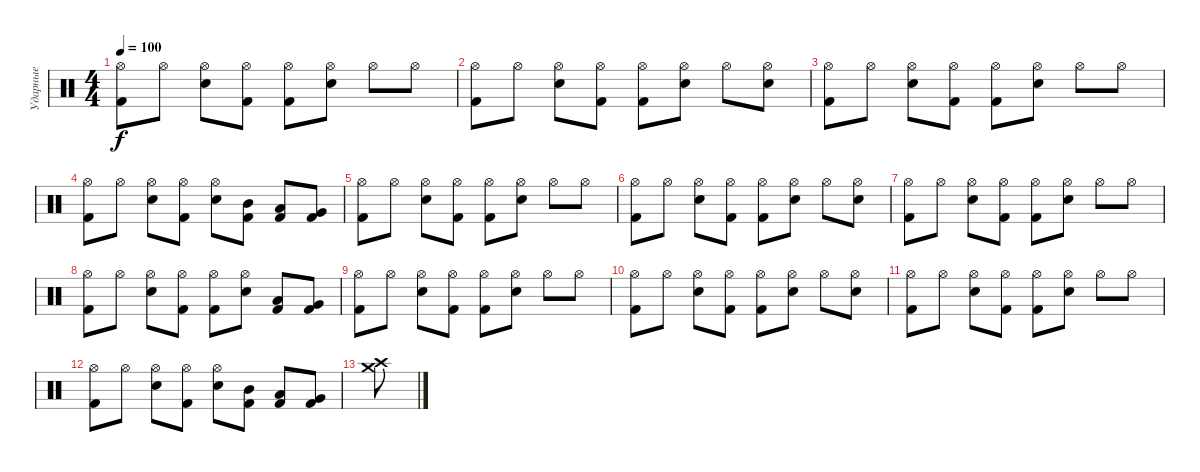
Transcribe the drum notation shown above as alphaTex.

\track ("Ударные" "Ударные") {instrument percussion}
\staff {score}
\articulation defaults
\ts (4 4)
\tempo 100
\clef neutral
\ks c
("Kick (hit) 2" "Hi-Hat (open)").8{dy f} "Hi-Hat (open)".8 ("Electric Snare (hit)" "Hi-Hat (open)").8 ("Kick (hit) 2" "Hi-Hat (open)").8 ("Kick (hit) 2" "Hi-Hat (open)").8 ("Electric Snare (hit)" "Hi-Hat (open)").8 "Hi-Hat (open)".8 "Hi-Hat (open)".8 |
("Kick (hit) 2" "Hi-Hat (open)").8 "Hi-Hat (open)".8 ("Electric Snare (hit)" "Hi-Hat (open)").8 ("Kick (hit) 2" "Hi-Hat (open)").8 ("Kick (hit) 2" "Hi-Hat (open)").8 ("Electric Snare (hit)" "Hi-Hat (open)").8 "Hi-Hat (open)".8 ("Electric Snare (hit)" "Hi-Hat (open)").8 |
("Kick (hit) 2" "Hi-Hat (open)").8 "Hi-Hat (open)".8 ("Electric Snare (hit)" "Hi-Hat (open)").8 ("Kick (hit) 2" "Hi-Hat (open)").8 ("Kick (hit) 2" "Hi-Hat (open)").8 ("Electric Snare (hit)" "Hi-Hat (open)").8 "Hi-Hat (open)".8 "Hi-Hat (open)".8 |
("Kick (hit) 2" "Hi-Hat (open)").8 "Hi-Hat (open)".8 ("Electric Snare (hit)" "Hi-Hat (open)").8 ("Kick (hit) 2" "Hi-Hat (open)").8 ("Electric Snare (hit)" "Hi-Hat (open)").8 ("Mid Tom (hit)" "Kick (hit) 2").8 ("Low Tom (hit)" "Kick (hit) 2").8 ("Very Low Tom (hit)" "Kick (hit) 2").8 |
("Kick (hit) 2" "Hi-Hat (open)").8 "Hi-Hat (open)".8 ("Electric Snare (hit)" "Hi-Hat (open)").8 ("Kick (hit) 2" "Hi-Hat (open)").8 ("Kick (hit) 2" "Hi-Hat (open)").8 ("Electric Snare (hit)" "Hi-Hat (open)").8 "Hi-Hat (open)".8 "Hi-Hat (open)".8 |
("Kick (hit) 2" "Hi-Hat (open)").8 "Hi-Hat (open)".8 ("Electric Snare (hit)" "Hi-Hat (open)").8 ("Kick (hit) 2" "Hi-Hat (open)").8 ("Kick (hit) 2" "Hi-Hat (open)").8 ("Electric Snare (hit)" "Hi-Hat (open)").8 "Hi-Hat (open)".8 ("Electric Snare (hit)" "Hi-Hat (open)").8 |
("Kick (hit) 2" "Hi-Hat (open)").8 "Hi-Hat (open)".8 ("Electric Snare (hit)" "Hi-Hat (open)").8 ("Kick (hit) 2" "Hi-Hat (open)").8 ("Kick (hit) 2" "Hi-Hat (open)").8 ("Electric Snare (hit)" "Hi-Hat (open)").8 "Hi-Hat (open)".8 "Hi-Hat (open)".8 |
("Kick (hit) 2" "Hi-Hat (open)").8 "Hi-Hat (open)".8 ("Electric Snare (hit)" "Hi-Hat (open)").8 ("Kick (hit) 2" "Hi-Hat (open)").8 ("Kick (hit) 2" "Hi-Hat (open)").8 ("Electric Snare (hit)" "Hi-Hat (open)").8 ("Low Tom (hit)" "Kick (hit) 2").8 ("Very Low Tom (hit)" "Kick (hit) 2").8 |
("Kick (hit) 2" "Hi-Hat (open)").8 "Hi-Hat (open)".8 ("Electric Snare (hit)" "Hi-Hat (open)").8 ("Kick (hit) 2" "Hi-Hat (open)").8 ("Kick (hit) 2" "Hi-Hat (open)").8 ("Electric Snare (hit)" "Hi-Hat (open)").8 "Hi-Hat (open)".8 "Hi-Hat (open)".8 |
("Kick (hit) 2" "Hi-Hat (open)").8 "Hi-Hat (open)".8 ("Electric Snare (hit)" "Hi-Hat (open)").8 ("Kick (hit) 2" "Hi-Hat (open)").8 ("Kick (hit) 2" "Hi-Hat (open)").8 ("Electric Snare (hit)" "Hi-Hat (open)").8 "Hi-Hat (open)".8 ("Electric Snare (hit)" "Hi-Hat (open)").8 |
("Kick (hit) 2" "Hi-Hat (open)").8 "Hi-Hat (open)".8 ("Electric Snare (hit)" "Hi-Hat (open)").8 ("Kick (hit) 2" "Hi-Hat (open)").8 ("Kick (hit) 2" "Hi-Hat (open)").8 ("Electric Snare (hit)" "Hi-Hat (open)").8 "Hi-Hat (open)".8 "Hi-Hat (open)".8 |
("Kick (hit) 2" "Hi-Hat (open)").8 "Hi-Hat (open)".8 ("Electric Snare (hit)" "Hi-Hat (open)").8 ("Kick (hit) 2" "Hi-Hat (open)").8 ("Electric Snare (hit)" "Hi-Hat (open)").8 ("Mid Tom (hit)" "Kick (hit) 2").8 ("Low Tom (hit)" "Kick (hit) 2").8 ("Very Low Tom (hit)" "Kick (hit) 2").8 |
("Crash high (hit)" "Crash medium (hit)").8
